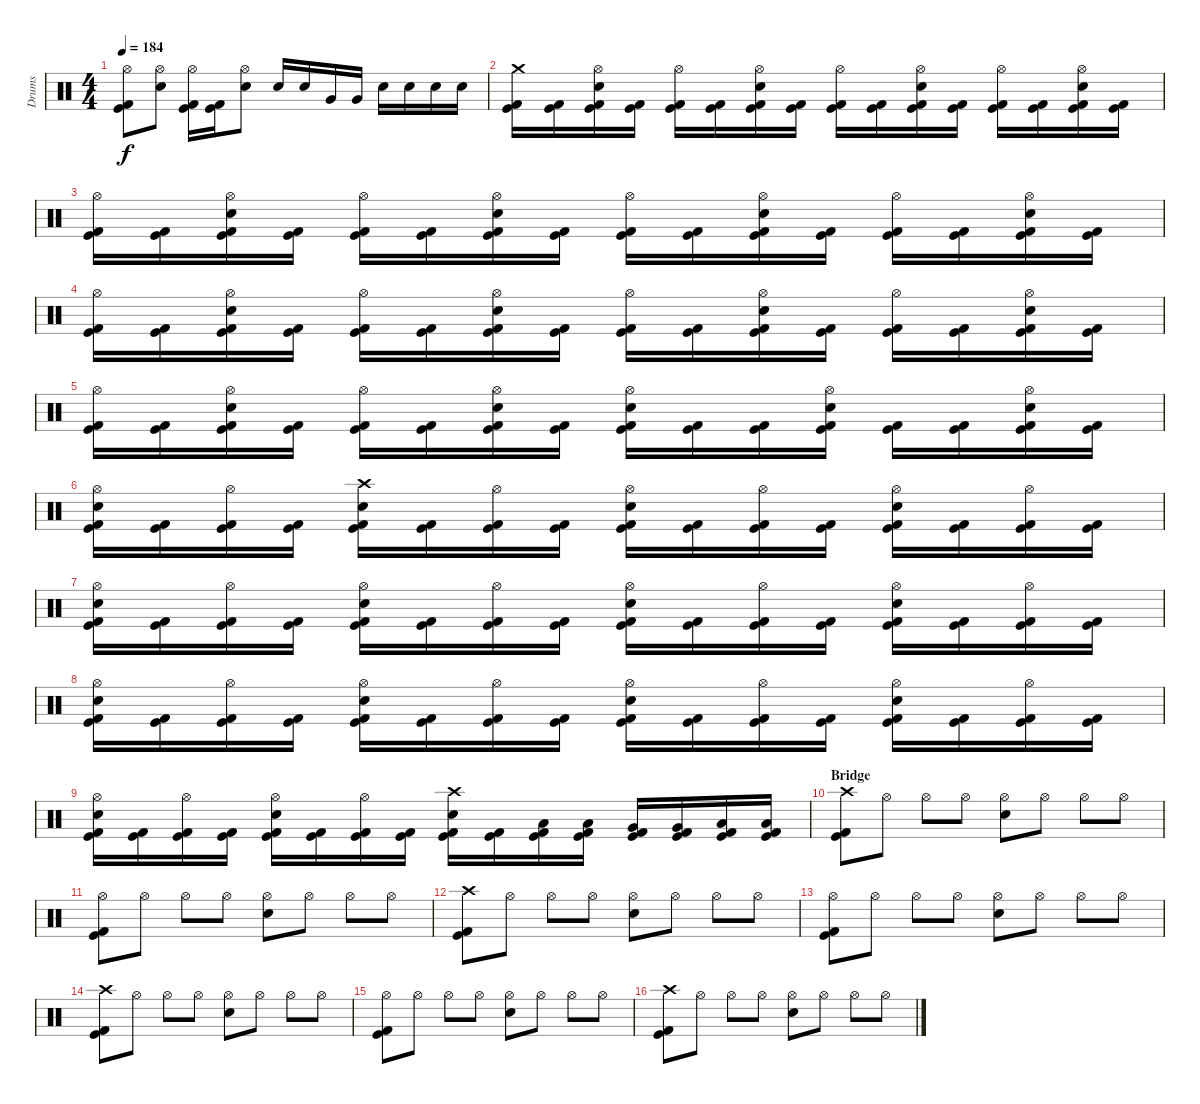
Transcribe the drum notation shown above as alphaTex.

\track ("Drums" "Drums") {instrument percussion}
\staff {score}
\articulation defaults
\ts (4 4)
\tempo 184
\clef neutral
\ks c
("Hi-Hat (open)" "Kick (hit)" "Kick (hit) 2").8{dy f} ("Hi-Hat (open)" "Electric Snare (hit)").8 ("Hi-Hat (open)" "Kick (hit)" "Kick (hit) 2").16 ("Kick (hit)" "Kick (hit) 2").16 ("Hi-Hat (open)" "Electric Snare (hit)").8 "Electric Snare (hit)".16 "Electric Snare (hit)".16 "Very Low Tom (hit)".16 "Very Low Tom (hit)".16 "Electric Snare (hit)".16 "Electric Snare (hit)".16 "Electric Snare (hit)".16 "Electric Snare (hit)".16 |
("Crash medium (hit)" "Kick (hit)" "Kick (hit) 2").16 ("Kick (hit)" "Kick (hit) 2").16 ("Hi-Hat (open)" "Electric Snare (hit)" "Kick (hit)" "Kick (hit) 2").16 ("Kick (hit)" "Kick (hit) 2").16 ("Hi-Hat (open)" "Kick (hit)" "Kick (hit) 2").16 ("Kick (hit)" "Kick (hit) 2").16 ("Hi-Hat (open)" "Electric Snare (hit)" "Kick (hit)" "Kick (hit) 2").16 ("Kick (hit)" "Kick (hit) 2").16 ("Hi-Hat (open)" "Kick (hit)" "Kick (hit) 2").16 ("Kick (hit)" "Kick (hit) 2").16 ("Hi-Hat (open)" "Electric Snare (hit)" "Kick (hit)" "Kick (hit) 2").16 ("Kick (hit)" "Kick (hit) 2").16 ("Hi-Hat (open)" "Kick (hit)" "Kick (hit) 2").16 ("Kick (hit)" "Kick (hit) 2").16 ("Hi-Hat (open)" "Electric Snare (hit)" "Kick (hit)" "Kick (hit) 2").16 ("Kick (hit)" "Kick (hit) 2").16 |
("Hi-Hat (open)" "Kick (hit)" "Kick (hit) 2").16 ("Kick (hit)" "Kick (hit) 2").16 ("Hi-Hat (open)" "Electric Snare (hit)" "Kick (hit)" "Kick (hit) 2").16 ("Kick (hit)" "Kick (hit) 2").16 ("Hi-Hat (open)" "Kick (hit)" "Kick (hit) 2").16 ("Kick (hit)" "Kick (hit) 2").16 ("Hi-Hat (open)" "Electric Snare (hit)" "Kick (hit)" "Kick (hit) 2").16 ("Kick (hit)" "Kick (hit) 2").16 ("Hi-Hat (open)" "Kick (hit)" "Kick (hit) 2").16 ("Kick (hit)" "Kick (hit) 2").16 ("Hi-Hat (open)" "Electric Snare (hit)" "Kick (hit)" "Kick (hit) 2").16 ("Kick (hit)" "Kick (hit) 2").16 ("Hi-Hat (open)" "Kick (hit)" "Kick (hit) 2").16 ("Kick (hit)" "Kick (hit) 2").16 ("Hi-Hat (open)" "Electric Snare (hit)" "Kick (hit)" "Kick (hit) 2").16 ("Kick (hit)" "Kick (hit) 2").16 |
("Hi-Hat (open)" "Kick (hit)" "Kick (hit) 2").16 ("Kick (hit)" "Kick (hit) 2").16 ("Hi-Hat (open)" "Electric Snare (hit)" "Kick (hit)" "Kick (hit) 2").16 ("Kick (hit)" "Kick (hit) 2").16 ("Hi-Hat (open)" "Kick (hit)" "Kick (hit) 2").16 ("Kick (hit)" "Kick (hit) 2").16 ("Hi-Hat (open)" "Electric Snare (hit)" "Kick (hit)" "Kick (hit) 2").16 ("Kick (hit)" "Kick (hit) 2").16 ("Hi-Hat (open)" "Kick (hit)" "Kick (hit) 2").16 ("Kick (hit)" "Kick (hit) 2").16 ("Hi-Hat (open)" "Electric Snare (hit)" "Kick (hit)" "Kick (hit) 2").16 ("Kick (hit)" "Kick (hit) 2").16 ("Hi-Hat (open)" "Kick (hit)" "Kick (hit) 2").16 ("Kick (hit)" "Kick (hit) 2").16 ("Hi-Hat (open)" "Electric Snare (hit)" "Kick (hit)" "Kick (hit) 2").16 ("Kick (hit)" "Kick (hit) 2").16 |
("Hi-Hat (open)" "Kick (hit)" "Kick (hit) 2").16 ("Kick (hit)" "Kick (hit) 2").16 ("Hi-Hat (open)" "Electric Snare (hit)" "Kick (hit)" "Kick (hit) 2").16 ("Kick (hit)" "Kick (hit) 2").16 ("Hi-Hat (open)" "Kick (hit)" "Kick (hit) 2").16 ("Kick (hit)" "Kick (hit) 2").16 ("Hi-Hat (open)" "Electric Snare (hit)" "Kick (hit)" "Kick (hit) 2").16 ("Kick (hit)" "Kick (hit) 2").16 ("Hi-Hat (open)" "Electric Snare (hit)" "Kick (hit)" "Kick (hit) 2").16 ("Kick (hit)" "Kick (hit) 2").16 ("Kick (hit)" "Kick (hit) 2").16 ("Hi-Hat (open)" "Electric Snare (hit)" "Kick (hit)" "Kick (hit) 2").16 ("Kick (hit)" "Kick (hit) 2").16 ("Kick (hit)" "Kick (hit) 2").16 ("Hi-Hat (open)" "Electric Snare (hit)" "Kick (hit)" "Kick (hit) 2").16 ("Kick (hit)" "Kick (hit) 2").16 |
("Hi-Hat (open)" "Electric Snare (hit)" "Kick (hit)" "Kick (hit) 2").16 ("Kick (hit)" "Kick (hit) 2").16 ("Hi-Hat (open)" "Kick (hit)" "Kick (hit) 2").16 ("Kick (hit)" "Kick (hit) 2").16 ("Crash high (hit)" "Electric Snare (hit)" "Kick (hit)" "Kick (hit) 2").16 ("Kick (hit)" "Kick (hit) 2").16 ("Hi-Hat (open)" "Kick (hit)" "Kick (hit) 2").16 ("Kick (hit)" "Kick (hit) 2").16 ("Hi-Hat (open)" "Electric Snare (hit)" "Kick (hit)" "Kick (hit) 2").16 ("Kick (hit)" "Kick (hit) 2").16 ("Hi-Hat (open)" "Kick (hit)" "Kick (hit) 2").16 ("Kick (hit)" "Kick (hit) 2").16 ("Hi-Hat (open)" "Electric Snare (hit)" "Kick (hit)" "Kick (hit) 2").16 ("Kick (hit)" "Kick (hit) 2").16 ("Hi-Hat (open)" "Kick (hit)" "Kick (hit) 2").16 ("Kick (hit)" "Kick (hit) 2").16 |
("Hi-Hat (open)" "Electric Snare (hit)" "Kick (hit)" "Kick (hit) 2").16 ("Kick (hit)" "Kick (hit) 2").16 ("Hi-Hat (open)" "Kick (hit)" "Kick (hit) 2").16 ("Kick (hit)" "Kick (hit) 2").16 ("Hi-Hat (open)" "Electric Snare (hit)" "Kick (hit)" "Kick (hit) 2").16 ("Kick (hit)" "Kick (hit) 2").16 ("Hi-Hat (open)" "Kick (hit)" "Kick (hit) 2").16 ("Kick (hit)" "Kick (hit) 2").16 ("Hi-Hat (open)" "Electric Snare (hit)" "Kick (hit)" "Kick (hit) 2").16 ("Kick (hit)" "Kick (hit) 2").16 ("Hi-Hat (open)" "Kick (hit)" "Kick (hit) 2").16 ("Kick (hit)" "Kick (hit) 2").16 ("Hi-Hat (open)" "Electric Snare (hit)" "Kick (hit)" "Kick (hit) 2").16 ("Kick (hit)" "Kick (hit) 2").16 ("Hi-Hat (open)" "Kick (hit)" "Kick (hit) 2").16 ("Kick (hit)" "Kick (hit) 2").16 |
("Hi-Hat (open)" "Electric Snare (hit)" "Kick (hit)" "Kick (hit) 2").16 ("Kick (hit)" "Kick (hit) 2").16 ("Hi-Hat (open)" "Kick (hit)" "Kick (hit) 2").16 ("Kick (hit)" "Kick (hit) 2").16 ("Hi-Hat (open)" "Electric Snare (hit)" "Kick (hit)" "Kick (hit) 2").16 ("Kick (hit)" "Kick (hit) 2").16 ("Hi-Hat (open)" "Kick (hit)" "Kick (hit) 2").16 ("Kick (hit)" "Kick (hit) 2").16 ("Hi-Hat (open)" "Electric Snare (hit)" "Kick (hit)" "Kick (hit) 2").16 ("Kick (hit)" "Kick (hit) 2").16 ("Hi-Hat (open)" "Kick (hit)" "Kick (hit) 2").16 ("Kick (hit)" "Kick (hit) 2").16 ("Hi-Hat (open)" "Electric Snare (hit)" "Kick (hit)" "Kick (hit) 2").16 ("Kick (hit)" "Kick (hit) 2").16 ("Hi-Hat (open)" "Kick (hit)" "Kick (hit) 2").16 ("Kick (hit)" "Kick (hit) 2").16 |
("Hi-Hat (open)" "Electric Snare (hit)" "Kick (hit)" "Kick (hit) 2").16 ("Kick (hit)" "Kick (hit) 2").16 ("Hi-Hat (open)" "Kick (hit)" "Kick (hit) 2").16 ("Kick (hit)" "Kick (hit) 2").16 ("Hi-Hat (open)" "Electric Snare (hit)" "Kick (hit)" "Kick (hit) 2").16 ("Kick (hit)" "Kick (hit) 2").16 ("Hi-Hat (open)" "Kick (hit)" "Kick (hit) 2").16 ("Kick (hit)" "Kick (hit) 2").16 ("Crash high (hit)" "Electric Snare (hit)" "Kick (hit)" "Kick (hit) 2").16 ("Kick (hit)" "Kick (hit) 2").16 ("Low Tom (hit)" "Kick (hit)" "Kick (hit) 2").16 ("Low Tom (hit)" "Kick (hit)" "Kick (hit) 2").16 ("Very Low Tom (hit)" "Kick (hit)" "Kick (hit) 2").16 ("Very Low Tom (hit)" "Kick (hit)" "Kick (hit) 2").16 ("Low Floor Tom (hit)" "Kick (hit)" "Kick (hit) 2").16 ("Low Floor Tom (hit)" "Kick (hit)" "Kick (hit) 2").16 |
\section ("" "Bridge")
("Crash high (hit)" "Kick (hit)" "Kick (hit) 2").8 "Hi-Hat (open)".8 "Hi-Hat (open)".8 "Hi-Hat (open)".8 ("Hi-Hat (open)" "Electric Snare (hit)").8 "Hi-Hat (open)".8 "Hi-Hat (open)".8 "Hi-Hat (open)".8 |
("Hi-Hat (open)" "Kick (hit)" "Kick (hit) 2").8 "Hi-Hat (open)".8 "Hi-Hat (open)".8 "Hi-Hat (open)".8 ("Hi-Hat (open)" "Electric Snare (hit)").8 "Hi-Hat (open)".8 "Hi-Hat (open)".8 "Hi-Hat (open)".8 |
("Crash high (hit)" "Kick (hit)" "Kick (hit) 2").8 "Hi-Hat (open)".8 "Hi-Hat (open)".8 "Hi-Hat (open)".8 ("Hi-Hat (open)" "Electric Snare (hit)").8 "Hi-Hat (open)".8 "Hi-Hat (open)".8 "Hi-Hat (open)".8 |
("Hi-Hat (open)" "Kick (hit)" "Kick (hit) 2").8 "Hi-Hat (open)".8 "Hi-Hat (open)".8 "Hi-Hat (open)".8 ("Hi-Hat (open)" "Electric Snare (hit)").8 "Hi-Hat (open)".8 "Hi-Hat (open)".8 "Hi-Hat (open)".8 |
("Crash high (hit)" "Kick (hit)" "Kick (hit) 2").8 "Hi-Hat (open)".8 "Hi-Hat (open)".8 "Hi-Hat (open)".8 ("Hi-Hat (open)" "Electric Snare (hit)").8 "Hi-Hat (open)".8 "Hi-Hat (open)".8 "Hi-Hat (open)".8 |
("Hi-Hat (open)" "Kick (hit)" "Kick (hit) 2").8 "Hi-Hat (open)".8 "Hi-Hat (open)".8 "Hi-Hat (open)".8 ("Hi-Hat (open)" "Electric Snare (hit)").8 "Hi-Hat (open)".8 "Hi-Hat (open)".8 "Hi-Hat (open)".8 |
("Crash high (hit)" "Kick (hit)" "Kick (hit) 2").8 "Hi-Hat (open)".8 "Hi-Hat (open)".8 "Hi-Hat (open)".8 ("Hi-Hat (open)" "Electric Snare (hit)").8 "Hi-Hat (open)".8 "Hi-Hat (open)".8 "Hi-Hat (open)".8
